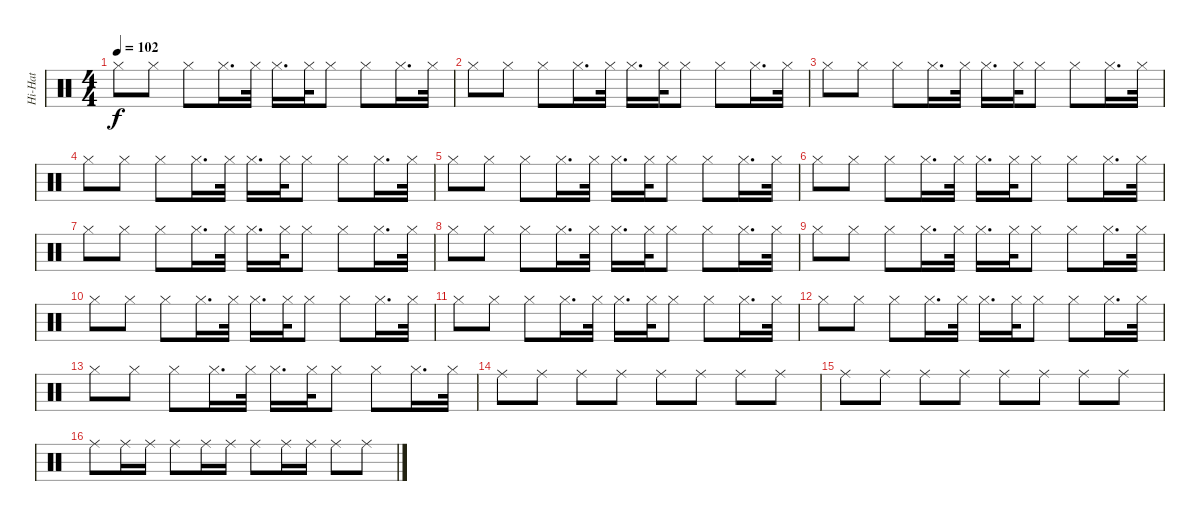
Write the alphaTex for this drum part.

\track ("Hi-Hat" "Hi-Hat") {instrument percussion}
\staff {score}
\articulation defaults
\ts (4 4)
\tempo 102
\clef neutral
\ks c "Hi-Hat (closed)".8{dy f} "Hi-Hat (closed)".8 "Hi-Hat (closed)".8 "Hi-Hat (closed)".16{d} "Hi-Hat (closed)".32 "Hi-Hat (closed)".16{d} "Hi-Hat (closed)".32 "Hi-Hat (closed)".8 "Hi-Hat (closed)".8 "Hi-Hat (closed)".16{d} "Hi-Hat (closed)".32
|
"Hi-Hat (closed)".8 "Hi-Hat (closed)".8 "Hi-Hat (closed)".8 "Hi-Hat (closed)".16{d} "Hi-Hat (closed)".32 "Hi-Hat (closed)".16{d} "Hi-Hat (closed)".32 "Hi-Hat (closed)".8 "Hi-Hat (closed)".8 "Hi-Hat (closed)".16{d} "Hi-Hat (closed)".32 |
"Hi-Hat (closed)".8 "Hi-Hat (closed)".8 "Hi-Hat (closed)".8 "Hi-Hat (closed)".16{d} "Hi-Hat (closed)".32 "Hi-Hat (closed)".16{d} "Hi-Hat (closed)".32 "Hi-Hat (closed)".8 "Hi-Hat (closed)".8 "Hi-Hat (closed)".16{d} "Hi-Hat (closed)".32 |
"Hi-Hat (closed)".8 "Hi-Hat (closed)".8 "Hi-Hat (closed)".8 "Hi-Hat (closed)".16{d} "Hi-Hat (closed)".32 "Hi-Hat (closed)".16{d} "Hi-Hat (closed)".32 "Hi-Hat (closed)".8 "Hi-Hat (closed)".8 "Hi-Hat (closed)".16{d} "Hi-Hat (closed)".32 |
"Hi-Hat (closed)".8 "Hi-Hat (closed)".8 "Hi-Hat (closed)".8 "Hi-Hat (closed)".16{d} "Hi-Hat (closed)".32 "Hi-Hat (closed)".16{d} "Hi-Hat (closed)".32 "Hi-Hat (closed)".8 "Hi-Hat (closed)".8 "Hi-Hat (closed)".16{d} "Hi-Hat (closed)".32 |
"Hi-Hat (closed)".8 "Hi-Hat (closed)".8 "Hi-Hat (closed)".8 "Hi-Hat (closed)".16{d} "Hi-Hat (closed)".32 "Hi-Hat (closed)".16{d} "Hi-Hat (closed)".32 "Hi-Hat (closed)".8 "Hi-Hat (closed)".8 "Hi-Hat (closed)".16{d} "Hi-Hat (closed)".32 |
"Hi-Hat (closed)".8 "Hi-Hat (closed)".8 "Hi-Hat (closed)".8 "Hi-Hat (closed)".16{d} "Hi-Hat (closed)".32 "Hi-Hat (closed)".16{d} "Hi-Hat (closed)".32 "Hi-Hat (closed)".8 "Hi-Hat (closed)".8 "Hi-Hat (closed)".16{d} "Hi-Hat (closed)".32 |
"Hi-Hat (closed)".8 "Hi-Hat (closed)".8 "Hi-Hat (closed)".8 "Hi-Hat (closed)".16{d} "Hi-Hat (closed)".32 "Hi-Hat (closed)".16{d} "Hi-Hat (closed)".32 "Hi-Hat (closed)".8 "Hi-Hat (closed)".8 "Hi-Hat (closed)".16{d} "Hi-Hat (closed)".32 |
"Hi-Hat (closed)".8 "Hi-Hat (closed)".8 "Hi-Hat (closed)".8 "Hi-Hat (closed)".16{d} "Hi-Hat (closed)".32 "Hi-Hat (closed)".16{d} "Hi-Hat (closed)".32 "Hi-Hat (closed)".8 "Hi-Hat (closed)".8 "Hi-Hat (closed)".16{d} "Hi-Hat (closed)".32 |
"Hi-Hat (closed)".8 "Hi-Hat (closed)".8 "Hi-Hat (closed)".8 "Hi-Hat (closed)".16{d} "Hi-Hat (closed)".32 "Hi-Hat (closed)".16{d} "Hi-Hat (closed)".32 "Hi-Hat (closed)".8 "Hi-Hat (closed)".8 "Hi-Hat (closed)".16{d} "Hi-Hat (closed)".32 |
"Hi-Hat (closed)".8 "Hi-Hat (closed)".8 "Hi-Hat (closed)".8 "Hi-Hat (closed)".16{d} "Hi-Hat (closed)".32 "Hi-Hat (closed)".16{d} "Hi-Hat (closed)".32 "Hi-Hat (closed)".8 "Hi-Hat (closed)".8 "Hi-Hat (closed)".16{d} "Hi-Hat (closed)".32 |
"Hi-Hat (closed)".8 "Hi-Hat (closed)".8 "Hi-Hat (closed)".8 "Hi-Hat (closed)".16{d} "Hi-Hat (closed)".32 "Hi-Hat (closed)".16{d} "Hi-Hat (closed)".32 "Hi-Hat (closed)".8 "Hi-Hat (closed)".8 "Hi-Hat (closed)".16{d} "Hi-Hat (closed)".32 |
"Hi-Hat (closed)".8 "Hi-Hat (closed)".8 "Hi-Hat (closed)".8 "Hi-Hat (closed)".16{d} "Hi-Hat (closed)".32 "Hi-Hat (closed)".16{d} "Hi-Hat (closed)".32 "Hi-Hat (closed)".8 "Hi-Hat (closed)".8 "Hi-Hat (closed)".16{d} "Hi-Hat (closed)".32 |
"Ride (middle)".8 "Ride (middle)".8 "Ride (middle)".8 "Ride (middle)".8 "Ride (middle)".8 "Ride (middle)".8 "Ride (middle)".8 "Ride (middle)".8 |
"Ride (middle)".8 "Ride (middle)".8 "Ride (middle)".8 "Ride (middle)".8 "Ride (middle)".8 "Ride (middle)".8 "Ride (middle)".8 "Ride (middle)".8 |
"Ride (middle)".8 "Ride (middle)".16 "Ride (middle)".16 "Ride (middle)".8 "Ride (middle)".16 "Ride (middle)".16 "Ride (middle)".8 "Ride (middle)".16 "Ride (middle)".16 "Ride (middle)".8 "Ride (middle)".8
